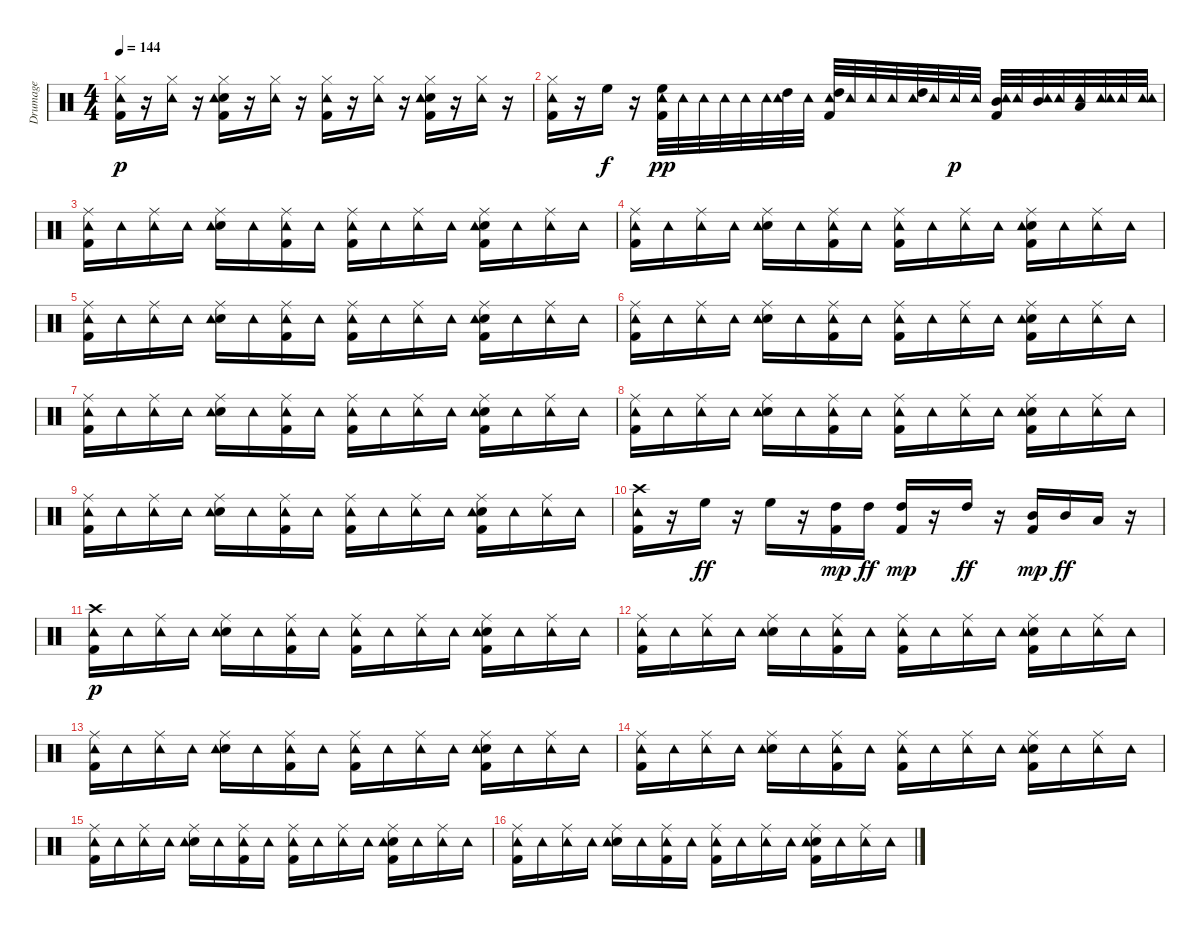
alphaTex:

\track ("Drumage" "Drumage") {instrument percussion}
\staff {score}
\articulation defaults
\ts (4 4)
\tempo 144
\clef neutral
\ks c
("Hi-Hat (closed)" "Kick (hit) 2" "Tambourine (hit)").16{dy p} r.16 ("Hi-Hat (closed)" "Tambourine (hit)").16 r.16 ("Hi-Hat (closed)" "Electric Snare (hit)" "Kick (hit) 2" "Tambourine (hit)").16 r.16 ("Hi-Hat (closed)" "Tambourine (hit)").16 r.16 ("Hi-Hat (closed)" "Kick (hit) 2" "Tambourine (hit)").16 r.16 ("Hi-Hat (closed)" "Tambourine (hit)").16 r.16 ("Hi-Hat (closed)" "Electric Snare (hit)" "Kick (hit) 2" "Tambourine (hit)").16 r.16 ("Hi-Hat (closed)" "Tambourine (hit)").16 r.16 |
("Hi-Hat (closed)" "Kick (hit) 2" "Tambourine (hit)").16 r.16 "High Floor Tom (hit)".16{dy f} r.16 ("High Floor Tom (hit)" "Kick (hit) 2" "Tambourine (hit)").32{dy pp} "Tambourine (hit)".32 "Tambourine (hit)".32 "Tambourine (hit)".32 "Tambourine (hit)".32 "Tambourine (hit)".32 ("High Tom (hit)" "Tambourine (hit)").32 "Tambourine (hit)".32 ("High Tom (hit)" "Kick (hit) 2" "Tambourine (hit)").32 "Tambourine (hit)".32 "Tambourine (hit)".32 "Tambourine (hit)".32 ("High Tom (hit)" "Tambourine (hit)").32 "Tambourine (hit)".32 "Tambourine (hit)".32{dy p} "Tambourine (hit)".32 ("Mid Tom (hit)" "Kick (hit) 2" "Tambourine (hit)").32 "Tambourine (hit)".32 ("Mid Tom (hit)" "Tambourine (hit)").32 "Tambourine (hit)".32 ("Low Tom (hit)" "Tambourine (hit)").32 ("Tambourine (hit)" "Tambourine (hit)").32 "Tambourine (hit)".32 ("Tambourine (hit)" "Tambourine (hit)").32 |
("Ride (middle)" "Kick (hit) 2" "Tambourine (hit)").16 "Tambourine (hit)".16 ("Ride (middle)" "Tambourine (hit)").16 "Tambourine (hit)".16 ("Ride (middle)" "Electric Snare (hit)" "Tambourine (hit)").16 "Tambourine (hit)".16 ("Ride (middle)" "Kick (hit) 2" "Tambourine (hit)").16 "Tambourine (hit)".16 ("Ride (middle)" "Kick (hit) 2" "Tambourine (hit)").16 "Tambourine (hit)".16 ("Ride (middle)" "Tambourine (hit)").16 "Tambourine (hit)".16 ("Ride (middle)" "Electric Snare (hit)" "Kick (hit) 2" "Tambourine (hit)").16 "Tambourine (hit)".16 ("Ride (middle)" "Tambourine (hit)").16 "Tambourine (hit)".16 |
("Ride (middle)" "Kick (hit) 2" "Tambourine (hit)").16 "Tambourine (hit)".16 ("Ride (middle)" "Tambourine (hit)").16 "Tambourine (hit)".16 ("Ride (middle)" "Electric Snare (hit)" "Tambourine (hit)").16 "Tambourine (hit)".16 ("Ride (middle)" "Kick (hit) 2" "Tambourine (hit)").16 "Tambourine (hit)".16 ("Ride (middle)" "Kick (hit) 2" "Tambourine (hit)").16 "Tambourine (hit)".16 ("Ride (middle)" "Tambourine (hit)").16 "Tambourine (hit)".16 ("Ride (middle)" "Electric Snare (hit)" "Kick (hit) 2" "Tambourine (hit)").16 "Tambourine (hit)".16 ("Ride (middle)" "Tambourine (hit)").16 "Tambourine (hit)".16 |
("Ride (middle)" "Kick (hit) 2" "Tambourine (hit)").16 "Tambourine (hit)".16 ("Ride (middle)" "Tambourine (hit)").16 "Tambourine (hit)".16 ("Ride (middle)" "Electric Snare (hit)" "Tambourine (hit)").16 "Tambourine (hit)".16 ("Ride (middle)" "Kick (hit) 2" "Tambourine (hit)").16 "Tambourine (hit)".16 ("Ride (middle)" "Kick (hit) 2" "Tambourine (hit)").16 "Tambourine (hit)".16 ("Ride (middle)" "Tambourine (hit)").16 "Tambourine (hit)".16 ("Ride (middle)" "Electric Snare (hit)" "Kick (hit) 2" "Tambourine (hit)").16 "Tambourine (hit)".16 ("Ride (middle)" "Tambourine (hit)").16 "Tambourine (hit)".16 |
("Ride (middle)" "Kick (hit) 2" "Tambourine (hit)").16 "Tambourine (hit)".16 ("Ride (middle)" "Tambourine (hit)").16 "Tambourine (hit)".16 ("Ride (middle)" "Electric Snare (hit)" "Tambourine (hit)").16 "Tambourine (hit)".16 ("Ride (middle)" "Kick (hit) 2" "Tambourine (hit)").16 "Tambourine (hit)".16 ("Ride (middle)" "Kick (hit) 2" "Tambourine (hit)").16 "Tambourine (hit)".16 ("Ride (middle)" "Tambourine (hit)").16 "Tambourine (hit)".16 ("Ride (middle)" "Electric Snare (hit)" "Kick (hit) 2" "Tambourine (hit)").16 "Tambourine (hit)".16 ("Ride (middle)" "Tambourine (hit)").16 "Tambourine (hit)".16 |
("Ride (middle)" "Kick (hit) 2" "Tambourine (hit)").16 "Tambourine (hit)".16 ("Ride (middle)" "Tambourine (hit)").16 "Tambourine (hit)".16 ("Ride (middle)" "Electric Snare (hit)" "Tambourine (hit)").16 "Tambourine (hit)".16 ("Ride (middle)" "Kick (hit) 2" "Tambourine (hit)").16 "Tambourine (hit)".16 ("Ride (middle)" "Kick (hit) 2" "Tambourine (hit)").16 "Tambourine (hit)".16 ("Ride (middle)" "Tambourine (hit)").16 "Tambourine (hit)".16 ("Ride (middle)" "Electric Snare (hit)" "Kick (hit) 2" "Tambourine (hit)").16 "Tambourine (hit)".16 ("Ride (middle)" "Tambourine (hit)").16 "Tambourine (hit)".16 |
("Ride (middle)" "Kick (hit) 2" "Tambourine (hit)").16 "Tambourine (hit)".16 ("Ride (middle)" "Tambourine (hit)").16 "Tambourine (hit)".16 ("Ride (middle)" "Electric Snare (hit)" "Tambourine (hit)").16 "Tambourine (hit)".16 ("Ride (middle)" "Kick (hit) 2" "Tambourine (hit)").16 "Tambourine (hit)".16 ("Ride (middle)" "Kick (hit) 2" "Tambourine (hit)").16 "Tambourine (hit)".16 ("Ride (middle)" "Tambourine (hit)").16 "Tambourine (hit)".16 ("Ride (middle)" "Electric Snare (hit)" "Kick (hit) 2" "Tambourine (hit)").16 "Tambourine (hit)".16 ("Ride (middle)" "Tambourine (hit)").16 "Tambourine (hit)".16 |
("Ride (middle)" "Kick (hit) 2" "Tambourine (hit)").16 "Tambourine (hit)".16 ("Ride (middle)" "Tambourine (hit)").16 "Tambourine (hit)".16 ("Ride (middle)" "Electric Snare (hit)" "Tambourine (hit)").16 "Tambourine (hit)".16 ("Ride (middle)" "Kick (hit) 2" "Tambourine (hit)").16 "Tambourine (hit)".16 ("Ride (middle)" "Kick (hit) 2" "Tambourine (hit)").16 "Tambourine (hit)".16 ("Ride (middle)" "Tambourine (hit)").16 "Tambourine (hit)".16 ("Ride (middle)" "Electric Snare (hit)" "Kick (hit) 2" "Tambourine (hit)").16 "Tambourine (hit)".16 ("Ride (middle)" "Tambourine (hit)").16 "Tambourine (hit)".16 |
("Crash high (hit)" "Kick (hit) 2" "Tambourine (hit)").16 r.16 "High Floor Tom (hit)".16{dy ff} r.16 "High Floor Tom (hit)".16 r.16 ("High Tom (hit)" "Kick (hit) 2").16{dy mp} "High Tom (hit)".16{dy ff} ("High Tom (hit)" "Kick (hit) 2").16{dy mp} r.16 "High Tom (hit)".16{dy ff} r.16 ("Mid Tom (hit)" "Kick (hit) 2").16{dy mp} "Mid Tom (hit)".16{dy ff} "Low Tom (hit)".16 r.16 |
("Crash high (hit)" "Kick (hit) 2" "Tambourine (hit)").16{dy p} "Tambourine (hit)".16 ("Ride (middle)" "Tambourine (hit)").16 "Tambourine (hit)".16 ("Ride (middle)" "Electric Snare (hit)" "Tambourine (hit)").16 "Tambourine (hit)".16 ("Ride (middle)" "Kick (hit) 2" "Tambourine (hit)").16 "Tambourine (hit)".16 ("Ride (middle)" "Kick (hit) 2" "Tambourine (hit)").16 "Tambourine (hit)".16 ("Ride (middle)" "Tambourine (hit)").16 "Tambourine (hit)".16 ("Ride (middle)" "Electric Snare (hit)" "Kick (hit) 2" "Tambourine (hit)").16 "Tambourine (hit)".16 ("Ride (middle)" "Tambourine (hit)").16 "Tambourine (hit)".16 |
("Ride (middle)" "Kick (hit) 2" "Tambourine (hit)").16 "Tambourine (hit)".16 ("Ride (middle)" "Tambourine (hit)").16 "Tambourine (hit)".16 ("Ride (middle)" "Electric Snare (hit)" "Tambourine (hit)").16 "Tambourine (hit)".16 ("Ride (middle)" "Kick (hit) 2" "Tambourine (hit)").16 "Tambourine (hit)".16 ("Ride (middle)" "Kick (hit) 2" "Tambourine (hit)").16 "Tambourine (hit)".16 ("Ride (middle)" "Tambourine (hit)").16 "Tambourine (hit)".16 ("Ride (middle)" "Electric Snare (hit)" "Kick (hit) 2" "Tambourine (hit)").16 "Tambourine (hit)".16 ("Ride (middle)" "Tambourine (hit)").16 "Tambourine (hit)".16 |
("Ride (middle)" "Kick (hit) 2" "Tambourine (hit)").16 "Tambourine (hit)".16 ("Ride (middle)" "Tambourine (hit)").16 "Tambourine (hit)".16 ("Ride (middle)" "Electric Snare (hit)" "Tambourine (hit)").16 "Tambourine (hit)".16 ("Ride (middle)" "Kick (hit) 2" "Tambourine (hit)").16 "Tambourine (hit)".16 ("Ride (middle)" "Kick (hit) 2" "Tambourine (hit)").16 "Tambourine (hit)".16 ("Ride (middle)" "Tambourine (hit)").16 "Tambourine (hit)".16 ("Ride (middle)" "Electric Snare (hit)" "Kick (hit) 2" "Tambourine (hit)").16 "Tambourine (hit)".16 ("Ride (middle)" "Tambourine (hit)").16 "Tambourine (hit)".16 |
("Ride (middle)" "Kick (hit) 2" "Tambourine (hit)").16 "Tambourine (hit)".16 ("Ride (middle)" "Tambourine (hit)").16 "Tambourine (hit)".16 ("Ride (middle)" "Electric Snare (hit)" "Tambourine (hit)").16 "Tambourine (hit)".16 ("Ride (middle)" "Kick (hit) 2" "Tambourine (hit)").16 "Tambourine (hit)".16 ("Ride (middle)" "Kick (hit) 2" "Tambourine (hit)").16 "Tambourine (hit)".16 ("Ride (middle)" "Tambourine (hit)").16 "Tambourine (hit)".16 ("Ride (middle)" "Electric Snare (hit)" "Kick (hit) 2" "Tambourine (hit)").16 "Tambourine (hit)".16 ("Ride (middle)" "Tambourine (hit)").16 "Tambourine (hit)".16 |
("Ride (middle)" "Kick (hit) 2" "Tambourine (hit)").16 "Tambourine (hit)".16 ("Ride (middle)" "Tambourine (hit)").16 "Tambourine (hit)".16 ("Ride (middle)" "Electric Snare (hit)" "Tambourine (hit)").16 "Tambourine (hit)".16 ("Ride (middle)" "Kick (hit) 2" "Tambourine (hit)").16 "Tambourine (hit)".16 ("Ride (middle)" "Kick (hit) 2" "Tambourine (hit)").16 "Tambourine (hit)".16 ("Ride (middle)" "Tambourine (hit)").16 "Tambourine (hit)".16 ("Ride (middle)" "Electric Snare (hit)" "Kick (hit) 2" "Tambourine (hit)").16 "Tambourine (hit)".16 ("Ride (middle)" "Tambourine (hit)").16 "Tambourine (hit)".16 |
("Ride (middle)" "Kick (hit) 2" "Tambourine (hit)").16 "Tambourine (hit)".16 ("Ride (middle)" "Tambourine (hit)").16 "Tambourine (hit)".16 ("Ride (middle)" "Electric Snare (hit)" "Tambourine (hit)").16 "Tambourine (hit)".16 ("Ride (middle)" "Kick (hit) 2" "Tambourine (hit)").16 "Tambourine (hit)".16 ("Ride (middle)" "Kick (hit) 2" "Tambourine (hit)").16 "Tambourine (hit)".16 ("Ride (middle)" "Tambourine (hit)").16 "Tambourine (hit)".16 ("Ride (middle)" "Electric Snare (hit)" "Kick (hit) 2" "Tambourine (hit)").16 "Tambourine (hit)".16 ("Ride (middle)" "Tambourine (hit)").16 "Tambourine (hit)".16
